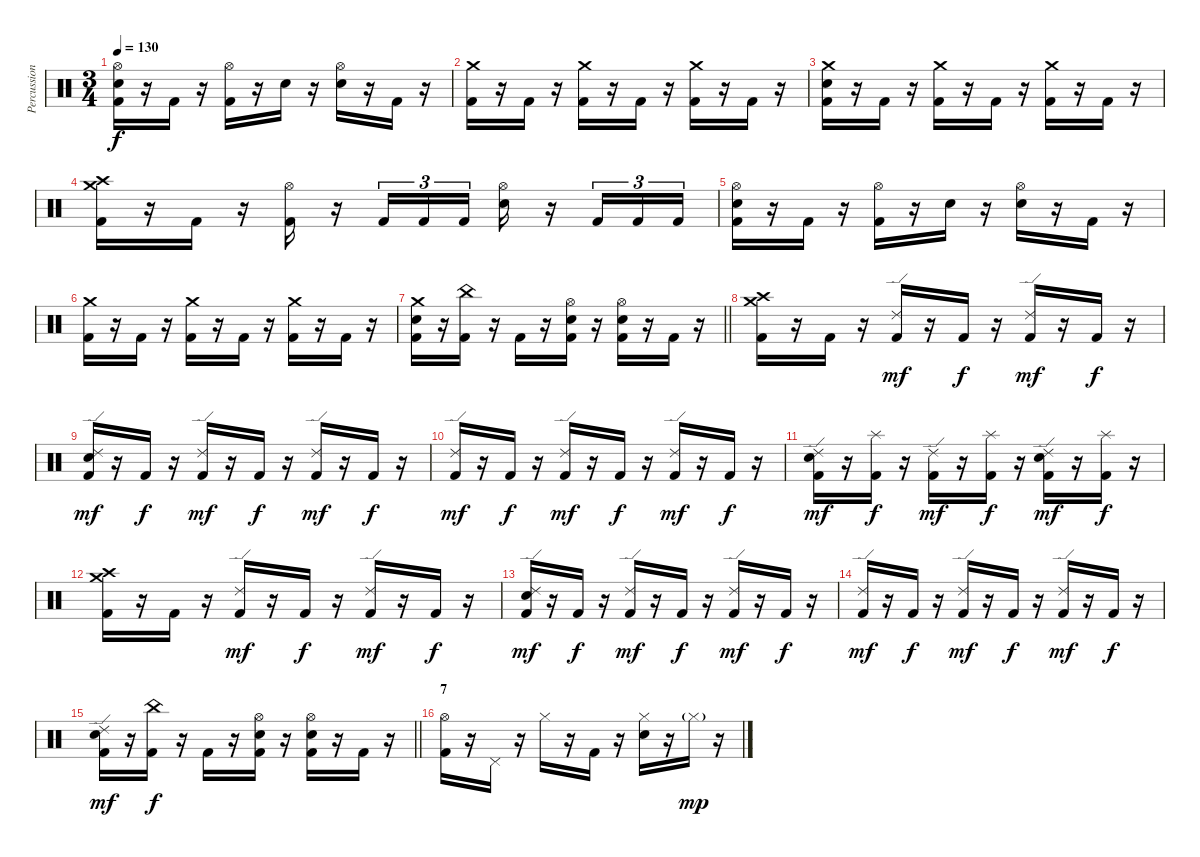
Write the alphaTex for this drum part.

\track ("Percussion" "Percussion") {instrument percussion}
\staff {score}
\articulation defaults
\ts (3 4)
\tempo 130
\clef neutral
\ks c
("Hi-Hat (open)" "Snare (hit) 2" "Kick (hit) 2").16{dy f} r.16 "Kick (hit) 2".16 r.16 ("Hi-Hat (open)" "Kick (hit) 2").16 r.16 "Snare (hit) 2".16 r.16 ("Hi-Hat (open)" "Snare (hit) 2").16 r.16 "Kick (hit) 2".16 r.16 |
("Crash medium (hit)" "Kick (hit) 2").16 r.16 "Kick (hit) 2".16 r.16 ("Crash medium (hit)" "Kick (hit) 2").16 r.16 "Kick (hit) 2".16 r.16 ("Crash medium (hit)" "Kick (hit) 2").16 r.16 "Kick (hit) 2".16 r.16 |
("Crash medium (hit)" "Snare (hit) 2" "Kick (hit) 2").16 r.16 "Kick (hit) 2".16 r.16 ("Crash medium (hit)" "Kick (hit) 2").16 r.16 "Kick (hit) 2".16 r.16 ("Crash medium (hit)" "Kick (hit) 2").16 r.16 "Kick (hit) 2".16 r.16 |
("Crash medium (hit)" "Crash high (hit)" "Kick (hit) 2").16 r.16 "Kick (hit) 2".16 r.16 ("Hi-Hat (open)" "Kick (hit) 2").16 r.16 "Kick (hit) 2".16{tu (3 2)} "Kick (hit) 2".16{tu (3 2)} "Kick (hit) 2".16{tu (3 2)} ("Hi-Hat (open)" "Snare (hit) 2").16 r.16 "Kick (hit) 2".16{tu (3 2)} "Kick (hit) 2".16{tu (3 2)} "Kick (hit) 2".16{tu (3 2)} |
("Hi-Hat (open)" "Snare (hit) 2" "Kick (hit) 2").16 r.16 "Kick (hit) 2".16 r.16 ("Hi-Hat (open)" "Kick (hit) 2").16 r.16 "Snare (hit) 2".16 r.16 ("Hi-Hat (open)" "Snare (hit) 2").16 r.16 "Kick (hit) 2".16 r.16 |
("Crash medium (hit)" "Kick (hit) 2").16 r.16 "Kick (hit) 2".16 r.16 ("Crash medium (hit)" "Kick (hit) 2").16 r.16 "Kick (hit) 2".16 r.16 ("Crash medium (hit)" "Kick (hit) 2").16 r.16 "Kick (hit) 2".16 r.16 |
\barLineRight lightlight
("Crash medium (hit)" "Snare (hit) 2" "Kick (hit) 2").16 r.16 ("China (hit)" "Kick (hit) 2").16 r.16 "Kick (hit) 2".16 r.16 ("Hi-Hat (open)" "Snare (hit) 2" "Kick (hit) 2").16 r.16 ("Hi-Hat (open)" "Snare (hit) 2" "Kick (hit) 2").16 r.16 "Kick (hit) 2".16 r.16 |
\section ("" "")
("Crash medium (hit)" "Crash high (hit)" "Kick (hit) 2").16 r.16 "Kick (hit) 2".16 r.16 ("Ride (edge) 2" "Kick (hit) 2").16{dy mf} r.16 "Kick (hit) 2".16{dy f} r.16 ("Ride (edge) 2" "Kick (hit) 2").16{dy mf} r.16 "Kick (hit) 2".16{dy f} r.16 |
("Ride (edge) 2" "Snare (hit) 2" "Kick (hit) 2").16{dy mf} r.16 "Kick (hit) 2".16{dy f} r.16 ("Ride (edge) 2" "Kick (hit) 2").16{dy mf} r.16 "Kick (hit) 2".16{dy f} r.16 ("Ride (edge) 2" "Kick (hit) 2").16{dy mf} r.16 "Kick (hit) 2".16{dy f} r.16 |
("Ride (edge) 2" "Kick (hit) 2").16{dy mf} r.16 "Kick (hit) 2".16{dy f} r.16 ("Ride (edge) 2" "Kick (hit) 2").16{dy mf} r.16 "Kick (hit) 2".16{dy f} r.16 ("Ride (edge) 2" "Kick (hit) 2").16{dy mf} r.16 "Kick (hit) 2".16{dy f} r.16 |
("Ride (edge) 2" "Snare (hit) 2" "Kick (hit) 2").16{dy mf} r.16 ("Splash (hit)" "Kick (hit) 2").16{dy f} r.16 ("Ride (edge) 2" "Kick (hit) 2").16{dy mf} r.16 ("Splash (hit)" "Kick (hit) 2").16{dy f} r.16 ("Ride (edge) 2" "Snare (hit) 2" "Kick (hit) 2").16{dy mf} r.16 ("Splash (hit)" "Kick (hit) 2").16{dy f} r.16 |
("Crash medium (hit)" "Crash high (hit)" "Kick (hit) 2").16 r.16 "Kick (hit) 2".16 r.16 ("Ride (edge) 2" "Kick (hit) 2").16{dy mf} r.16 "Kick (hit) 2".16{dy f} r.16 ("Ride (edge) 2" "Kick (hit) 2").16{dy mf} r.16 "Kick (hit) 2".16{dy f} r.16 |
("Ride (edge) 2" "Snare (hit) 2" "Kick (hit) 2").16{dy mf} r.16 "Kick (hit) 2".16{dy f} r.16 ("Ride (edge) 2" "Kick (hit) 2").16{dy mf} r.16 "Kick (hit) 2".16{dy f} r.16 ("Ride (edge) 2" "Kick (hit) 2").16{dy mf} r.16 "Kick (hit) 2".16{dy f} r.16 |
("Ride (edge) 2" "Kick (hit) 2").16{dy mf} r.16 "Kick (hit) 2".16{dy f} r.16 ("Ride (edge) 2" "Kick (hit) 2").16{dy mf} r.16 "Kick (hit) 2".16{dy f} r.16 ("Ride (edge) 2" "Kick (hit) 2").16{dy mf} r.16 "Kick (hit) 2".16{dy f} r.16 |
\barLineRight lightlight
("Ride (edge) 2" "Snare (hit) 2" "Kick (hit) 2").16{dy mf} r.16 ("China (hit)" "Kick (hit) 2").16{dy f} r.16 "Kick (hit) 2".16 r.16 ("Hi-Hat (open)" "Snare (hit) 2" "Kick (hit) 2").16 r.16 ("Hi-Hat (open)" "Snare (hit) 2" "Kick (hit) 2").16 r.16 "Kick (hit) 2".16 r.16 |
\section ("" "7")
("Hi-Hat (open)" "Kick (hit) 2").16 r.16 "Pedal Hi-Hat (hit)".16 r.16 "Hi-Hat (closed)".16 r.16 "Kick (hit) 2".16 r.16 ("Hi-Hat (closed)" "Snare (hit) 2").16 r.16 "Hi-Hat (closed)"{g}.16{dy mp} r.16
